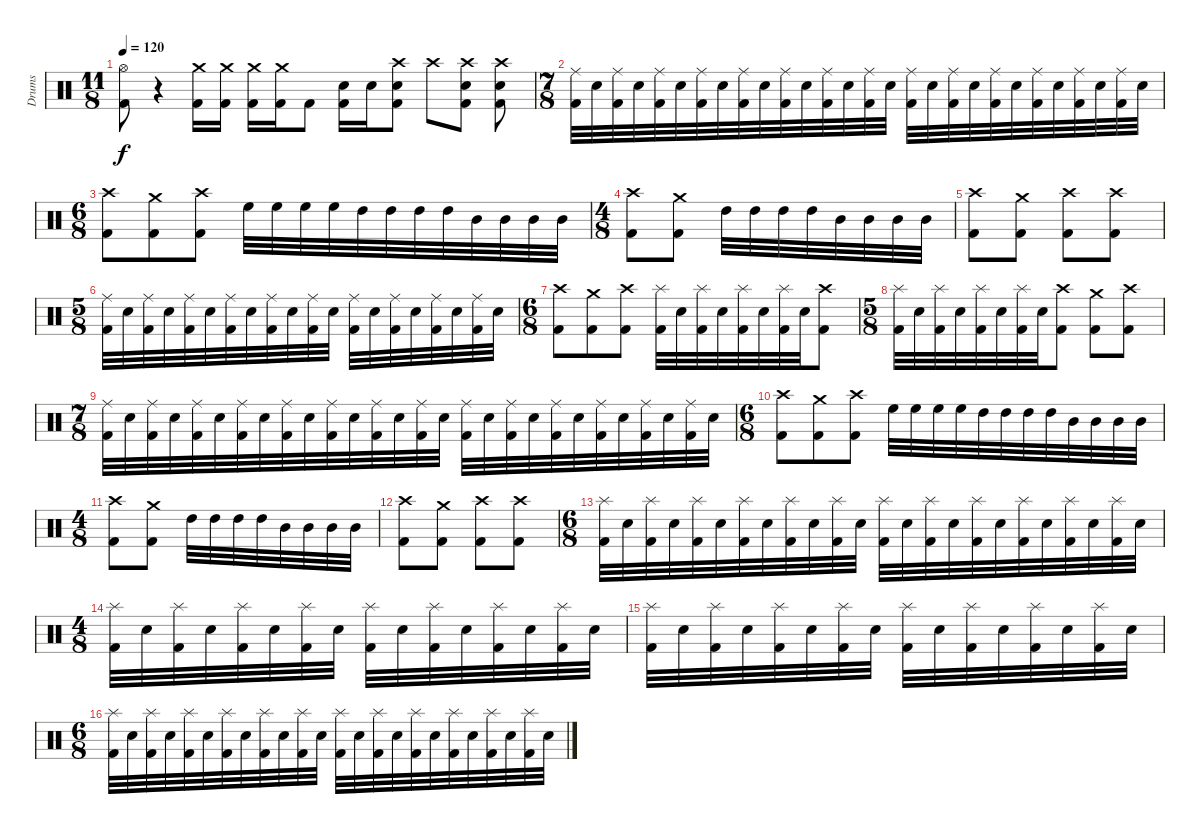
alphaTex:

\track ("Drums" "Drums") {instrument percussion}
\staff {score}
\articulation defaults
\ts (11 8)
\tempo 120
\clef neutral
\ks c
("Hi-Hat (open)" "Kick (hit) 2").8{dy f} r.4 ("Crash medium (hit)" "Kick (hit) 2").16 ("Crash medium (hit)" "Kick (hit) 2").16 ("Crash medium (hit)" "Kick (hit) 2").16 ("Crash medium (hit)" "Kick (hit) 2").16 "Kick (hit) 2".8 ("Snare (hit) 2" "Kick (hit) 2").16 "Snare (hit) 2".16 ("Crash high (hit)" "Snare (hit) 2" "Kick (hit) 2").8 "Crash high (hit)".8 ("Crash high (hit)" "Snare (hit) 2" "Kick (hit) 2").8 ("Crash high (hit)" "Snare (hit) 2" "Kick (hit) 2").8 |
\ts (7 8)
("Ride (middle)" "Kick (hit) 2").32 "Snare (hit) 2".32 ("Ride (middle)" "Kick (hit) 2").32 "Snare (hit) 2".32 ("Ride (middle)" "Kick (hit) 2").32 "Snare (hit) 2".32 ("Ride (middle)" "Kick (hit) 2").32 "Snare (hit) 2".32 ("Ride (middle)" "Kick (hit) 2").32 "Snare (hit) 2".32 ("Ride (middle)" "Kick (hit) 2").32 "Snare (hit) 2".32 ("Ride (middle)" "Kick (hit) 2").32 "Snare (hit) 2".32 ("Ride (middle)" "Kick (hit) 2").32 "Snare (hit) 2".32 ("Ride (middle)" "Kick (hit) 2").32 "Snare (hit) 2".32 ("Ride (middle)" "Kick (hit) 2").32 "Snare (hit) 2".32 ("Ride (middle)" "Kick (hit) 2").32 "Snare (hit) 2".32 ("Ride (middle)" "Kick (hit) 2").32 "Snare (hit) 2".32 ("Ride (middle)" "Kick (hit) 2").32 "Snare (hit) 2".32 ("Ride (middle)" "Kick (hit) 2").32 "Snare (hit) 2".32 |
\ts (6 8)
("Crash high (hit)" "Kick (hit) 2").8 ("Crash medium (hit)" "Kick (hit) 2").8 ("Crash high (hit)" "Kick (hit) 2").8 "High Floor Tom (hit)".32 "High Floor Tom (hit)".32 "High Floor Tom (hit)".32 "High Floor Tom (hit)".32 "High Tom (hit)".32 "High Tom (hit)".32 "High Tom (hit)".32 "High Tom (hit)".32 "Mid Tom (hit)".32 "Mid Tom (hit)".32 "Mid Tom (hit)".32 "Mid Tom (hit)".32 |
\ts (4 8)
("Crash high (hit)" "Kick (hit) 2").8 ("Crash medium (hit)" "Kick (hit) 2").8 "High Tom (hit)".32 "High Tom (hit)".32 "High Tom (hit)".32 "High Tom (hit)".32 "Mid Tom (hit)".32 "Mid Tom (hit)".32 "Mid Tom (hit)".32 "Mid Tom (hit)".32 |
("Crash high (hit)" "Kick (hit) 2").8 ("Crash medium (hit)" "Kick (hit) 2").8 ("Crash high (hit)" "Kick (hit) 2").8 ("Crash high (hit)" "Kick (hit) 2").8 |
\ts (5 8)
("Ride (middle)" "Kick (hit) 2").32 "Snare (hit) 2".32 ("Ride (middle)" "Kick (hit) 2").32 "Snare (hit) 2".32 ("Ride (middle)" "Kick (hit) 2").32 "Snare (hit) 2".32 ("Ride (middle)" "Kick (hit) 2").32 "Snare (hit) 2".32 ("Ride (middle)" "Kick (hit) 2").32 "Snare (hit) 2".32 ("Ride (middle)" "Kick (hit) 2").32 "Snare (hit) 2".32 ("Ride (middle)" "Kick (hit) 2").32 "Snare (hit) 2".32 ("Ride (middle)" "Kick (hit) 2").32 "Snare (hit) 2".32 ("Ride (middle)" "Kick (hit) 2").32 "Snare (hit) 2".32 ("Ride (middle)" "Kick (hit) 2").32 "Snare (hit) 2".32 |
\ts (6 8)
("Crash high (hit)" "Kick (hit) 2").8 ("Crash medium (hit)" "Kick (hit) 2").8 ("Crash high (hit)" "Kick (hit) 2").8 ("Splash (hit)" "Kick (hit) 2").32 "Snare (hit) 2".32 ("Splash (hit)" "Kick (hit) 2").32 "Snare (hit) 2".32 ("Splash (hit)" "Kick (hit) 2").32 "Snare (hit) 2".32 ("Splash (hit)" "Kick (hit) 2").32 "Snare (hit) 2".32 ("Crash high (hit)" "Kick (hit) 2").8 |
\ts (5 8)
("Splash (hit)" "Kick (hit) 2").32 "Snare (hit) 2".32 ("Splash (hit)" "Kick (hit) 2").32 "Snare (hit) 2".32 ("Splash (hit)" "Kick (hit) 2").32 "Snare (hit) 2".32 ("Splash (hit)" "Kick (hit) 2").32 "Snare (hit) 2".32 ("Crash high (hit)" "Kick (hit) 2").8 ("Crash medium (hit)" "Kick (hit) 2").8 ("Crash high (hit)" "Kick (hit) 2").8 |
\ts (7 8)
("Ride (middle)" "Kick (hit) 2").32 "Snare (hit) 2".32 ("Ride (middle)" "Kick (hit) 2").32 "Snare (hit) 2".32 ("Ride (middle)" "Kick (hit) 2").32 "Snare (hit) 2".32 ("Ride (middle)" "Kick (hit) 2").32 "Snare (hit) 2".32 ("Ride (middle)" "Kick (hit) 2").32 "Snare (hit) 2".32 ("Ride (middle)" "Kick (hit) 2").32 "Snare (hit) 2".32 ("Ride (middle)" "Kick (hit) 2").32 "Snare (hit) 2".32 ("Ride (middle)" "Kick (hit) 2").32 "Snare (hit) 2".32 ("Ride (middle)" "Kick (hit) 2").32 "Snare (hit) 2".32 ("Ride (middle)" "Kick (hit) 2").32 "Snare (hit) 2".32 ("Ride (middle)" "Kick (hit) 2").32 "Snare (hit) 2".32 ("Ride (middle)" "Kick (hit) 2").32 "Snare (hit) 2".32 ("Ride (middle)" "Kick (hit) 2").32 "Snare (hit) 2".32 ("Ride (middle)" "Kick (hit) 2").32 "Snare (hit) 2".32 |
\ts (6 8)
("Crash high (hit)" "Kick (hit) 2").8 ("Crash medium (hit)" "Kick (hit) 2").8 ("Crash high (hit)" "Kick (hit) 2").8 "High Floor Tom (hit)".32 "High Floor Tom (hit)".32 "High Floor Tom (hit)".32 "High Floor Tom (hit)".32 "High Tom (hit)".32 "High Tom (hit)".32 "High Tom (hit)".32 "High Tom (hit)".32 "Mid Tom (hit)".32 "Mid Tom (hit)".32 "Mid Tom (hit)".32 "Mid Tom (hit)".32 |
\ts (4 8)
("Crash high (hit)" "Kick (hit) 2").8 ("Crash medium (hit)" "Kick (hit) 2").8 "High Tom (hit)".32 "High Tom (hit)".32 "High Tom (hit)".32 "High Tom (hit)".32 "Mid Tom (hit)".32 "Mid Tom (hit)".32 "Mid Tom (hit)".32 "Mid Tom (hit)".32 |
("Crash high (hit)" "Kick (hit) 2").8 ("Crash medium (hit)" "Kick (hit) 2").8 ("Crash high (hit)" "Kick (hit) 2").8 ("Crash high (hit)" "Kick (hit) 2").8 |
\ts (6 8)
("Splash (hit)" "Kick (hit) 2").32 "Snare (hit) 2".32 ("Splash (hit)" "Kick (hit) 2").32 "Snare (hit) 2".32 ("Splash (hit)" "Kick (hit) 2").32 "Snare (hit) 2".32 ("Splash (hit)" "Kick (hit) 2").32 "Snare (hit) 2".32 ("Splash (hit)" "Kick (hit) 2").32 "Snare (hit) 2".32 ("Splash (hit)" "Kick (hit) 2").32 "Snare (hit) 2".32 ("Splash (hit)" "Kick (hit) 2").32 "Snare (hit) 2".32 ("Splash (hit)" "Kick (hit) 2").32 "Snare (hit) 2".32 ("Splash (hit)" "Kick (hit) 2").32 "Snare (hit) 2".32 ("Splash (hit)" "Kick (hit) 2").32 "Snare (hit) 2".32 ("Splash (hit)" "Kick (hit) 2").32 "Snare (hit) 2".32 ("Splash (hit)" "Kick (hit) 2").32 "Snare (hit) 2".32 |
\ts (4 8)
("Splash (hit)" "Kick (hit) 2").32 "Snare (hit) 2".32 ("Splash (hit)" "Kick (hit) 2").32 "Snare (hit) 2".32 ("Splash (hit)" "Kick (hit) 2").32 "Snare (hit) 2".32 ("Splash (hit)" "Kick (hit) 2").32 "Snare (hit) 2".32 ("Splash (hit)" "Kick (hit) 2").32 "Snare (hit) 2".32 ("Splash (hit)" "Kick (hit) 2").32 "Snare (hit) 2".32 ("Splash (hit)" "Kick (hit) 2").32 "Snare (hit) 2".32 ("Splash (hit)" "Kick (hit) 2").32 "Snare (hit) 2".32 |
("Splash (hit)" "Kick (hit) 2").32 "Snare (hit) 2".32 ("Splash (hit)" "Kick (hit) 2").32 "Snare (hit) 2".32 ("Splash (hit)" "Kick (hit) 2").32 "Snare (hit) 2".32 ("Splash (hit)" "Kick (hit) 2").32 "Snare (hit) 2".32 ("Splash (hit)" "Kick (hit) 2").32 "Snare (hit) 2".32 ("Splash (hit)" "Kick (hit) 2").32 "Snare (hit) 2".32 ("Splash (hit)" "Kick (hit) 2").32 "Snare (hit) 2".32 ("Splash (hit)" "Kick (hit) 2").32 "Snare (hit) 2".32 |
\ts (6 8)
("Splash (hit)" "Kick (hit) 2").32 "Snare (hit) 2".32 ("Splash (hit)" "Kick (hit) 2").32 "Snare (hit) 2".32 ("Splash (hit)" "Kick (hit) 2").32 "Snare (hit) 2".32 ("Splash (hit)" "Kick (hit) 2").32 "Snare (hit) 2".32 ("Splash (hit)" "Kick (hit) 2").32 "Snare (hit) 2".32 ("Splash (hit)" "Kick (hit) 2").32 "Snare (hit) 2".32 ("Splash (hit)" "Kick (hit) 2").32 "Snare (hit) 2".32 ("Splash (hit)" "Kick (hit) 2").32 "Snare (hit) 2".32 ("Splash (hit)" "Kick (hit) 2").32 "Snare (hit) 2".32 ("Splash (hit)" "Kick (hit) 2").32 "Snare (hit) 2".32 ("Splash (hit)" "Kick (hit) 2").32 "Snare (hit) 2".32 ("Splash (hit)" "Kick (hit) 2").32 "Snare (hit) 2".32
